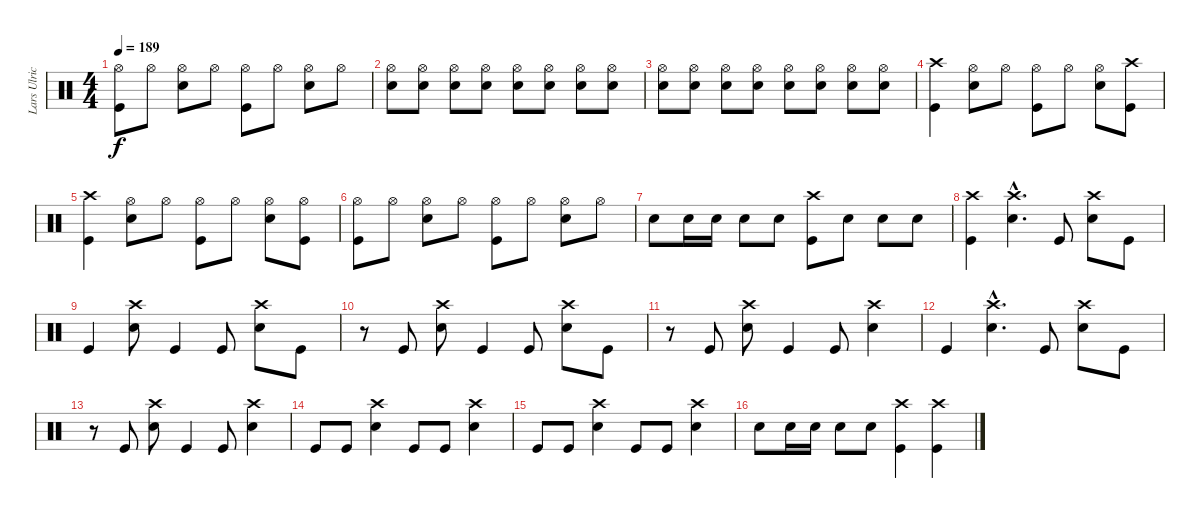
\track ("Lars Ulrich" "Lars Ulric") {instrument percussion}
\staff {score}
\articulation defaults
\ts (4 4)
\tempo 189
\clef neutral
\ks c
("Hi-Hat (open)" "Kick (hit)").8{dy f} "Hi-Hat (open)".8 ("Hi-Hat (open)" "Electric Snare (hit)").8 "Hi-Hat (open)".8 ("Hi-Hat (open)" "Kick (hit)").8 "Hi-Hat (open)".8 ("Hi-Hat (open)" "Electric Snare (hit)").8 "Hi-Hat (open)".8 |
("Hi-Hat (open)" "Electric Snare (hit)").8 ("Hi-Hat (open)" "Electric Snare (hit)").8 ("Hi-Hat (open)" "Electric Snare (hit)").8 ("Hi-Hat (open)" "Electric Snare (hit)").8 ("Hi-Hat (open)" "Electric Snare (hit)").8 ("Hi-Hat (open)" "Electric Snare (hit)").8 ("Hi-Hat (open)" "Electric Snare (hit)").8 ("Hi-Hat (open)" "Electric Snare (hit)").8 |
("Hi-Hat (open)" "Electric Snare (hit)").8 ("Hi-Hat (open)" "Electric Snare (hit)").8 ("Hi-Hat (open)" "Electric Snare (hit)").8 ("Hi-Hat (open)" "Electric Snare (hit)").8 ("Hi-Hat (open)" "Electric Snare (hit)").8 ("Hi-Hat (open)" "Electric Snare (hit)").8 ("Hi-Hat (open)" "Electric Snare (hit)").8 ("Hi-Hat (open)" "Electric Snare (hit)").8 |
("Crash high (hit)" "Kick (hit)").4 ("Hi-Hat (open)" "Electric Snare (hit)").8 "Hi-Hat (open)".8 ("Hi-Hat (open)" "Kick (hit)").8 "Hi-Hat (open)".8 ("Hi-Hat (open)" "Electric Snare (hit)").8 ("Crash high (hit)" "Kick (hit)").8 |
("Crash high (hit)" "Kick (hit)").4 ("Hi-Hat (open)" "Electric Snare (hit)").8 "Hi-Hat (open)".8 ("Hi-Hat (open)" "Kick (hit)").8 "Hi-Hat (open)".8 ("Hi-Hat (open)" "Electric Snare (hit)").8 ("Hi-Hat (open)" "Kick (hit)").8 |
("Hi-Hat (open)" "Kick (hit)").8 "Hi-Hat (open)".8 ("Hi-Hat (open)" "Electric Snare (hit)").8 "Hi-Hat (open)".8 ("Hi-Hat (open)" "Kick (hit)").8 "Hi-Hat (open)".8 ("Hi-Hat (open)" "Electric Snare (hit)").8 "Hi-Hat (open)".8 |
"Electric Snare (hit)".8 "Electric Snare (hit)".16 "Electric Snare (hit)".16 "Electric Snare (hit)".8 "Electric Snare (hit)".8 ("Crash high (hit)" "Kick (hit)").8 "Electric Snare (hit)".8 "Electric Snare (hit)".8 "Electric Snare (hit)".8 |
("Crash high (hit)" "Kick (hit)").4 ("Crash high (hit)"{hac} "Electric Snare (hit)"{hac}).4{d} "Kick (hit)".8 ("Crash high (hit)" "Electric Snare (hit)").8 "Kick (hit)".8 |
"Kick (hit)".4 ("Crash high (hit)" "Electric Snare (hit)").8 "Kick (hit)".4 "Kick (hit)".8 ("Crash high (hit)" "Electric Snare (hit)").8 "Kick (hit)".8 |
r.8 "Kick (hit)".8 ("Crash high (hit)" "Electric Snare (hit)").8 "Kick (hit)".4 "Kick (hit)".8 ("Crash high (hit)" "Electric Snare (hit)").8 "Kick (hit)".8 |
r.8 "Kick (hit)".8 ("Crash high (hit)" "Electric Snare (hit)").8 "Kick (hit)".4 "Kick (hit)".8 ("Crash high (hit)" "Electric Snare (hit)").4 |
"Kick (hit)".4 ("Crash high (hit)"{hac} "Electric Snare (hit)"{hac}).4{d} "Kick (hit)".8 ("Crash high (hit)" "Electric Snare (hit)").8 "Kick (hit)".8 |
r.8 "Kick (hit)".8 ("Crash high (hit)" "Electric Snare (hit)").8 "Kick (hit)".4 "Kick (hit)".8 ("Crash high (hit)" "Electric Snare (hit)").4 |
"Kick (hit)".8 "Kick (hit)".8 ("Crash high (hit)" "Electric Snare (hit)").4 "Kick (hit)".8 "Kick (hit)".8 ("Crash high (hit)" "Electric Snare (hit)").4 |
"Kick (hit)".8 "Kick (hit)".8 ("Crash high (hit)" "Electric Snare (hit)").4 "Kick (hit)".8 "Kick (hit)".8 ("Crash high (hit)" "Electric Snare (hit)").4 |
"Electric Snare (hit)".8 "Electric Snare (hit)".16 "Electric Snare (hit)".16 "Electric Snare (hit)".8 "Electric Snare (hit)".8 ("Crash high (hit)" "Kick (hit)").4 ("Crash high (hit)" "Kick (hit)").4
